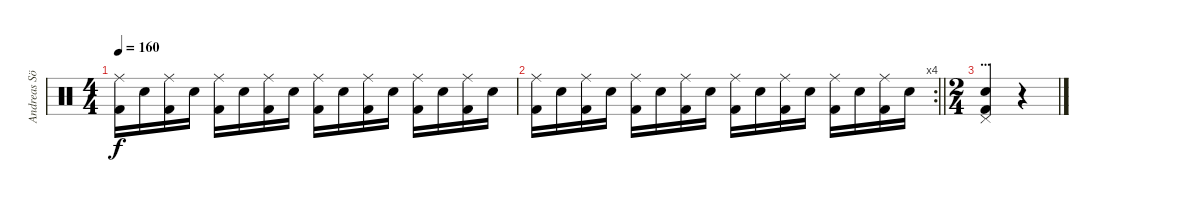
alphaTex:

\track ("Andreas Söderlund" "Andreas Sö") {instrument percussion}
\staff {score}
\articulation defaults
\ts (4 4)
\tempo 160
\clef neutral
\ks c
("Ride (middle)" "Kick (hit) 2").16{dy f} "Electric Snare (hit)".16 ("Ride (middle)" "Kick (hit) 2").16 "Electric Snare (hit)".16 ("Ride (middle)" "Kick (hit) 2").16 "Electric Snare (hit)".16 ("Ride (middle)" "Kick (hit) 2").16 "Electric Snare (hit)".16 ("Ride (middle)" "Kick (hit) 2").16 "Electric Snare (hit)".16 ("Ride (middle)" "Kick (hit) 2").16 "Electric Snare (hit)".16 ("Ride (middle)" "Kick (hit) 2").16 "Electric Snare (hit)".16 ("Ride (middle)" "Kick (hit) 2").16 "Electric Snare (hit)".16 |
\rc 4
\barLineRight lightlight
("Ride (middle)" "Kick (hit) 2").16 "Electric Snare (hit)".16 ("Ride (middle)" "Kick (hit) 2").16 "Electric Snare (hit)".16 ("Ride (middle)" "Kick (hit) 2").16 "Electric Snare (hit)".16 ("Ride (middle)" "Kick (hit) 2").16 "Electric Snare (hit)".16 ("Ride (middle)" "Kick (hit) 2").16 "Electric Snare (hit)".16 ("Ride (middle)" "Kick (hit) 2").16 "Electric Snare (hit)".16 ("Ride (middle)" "Kick (hit) 2").16 "Electric Snare (hit)".16 ("Ride (middle)" "Kick (hit) 2").16 "Electric Snare (hit)".16 |
\ts (2 4)
\section ("" "...")
("Pedal Hi-Hat (hit)" "Electric Snare (hit)" "Kick (hit) 2").4 r.4
